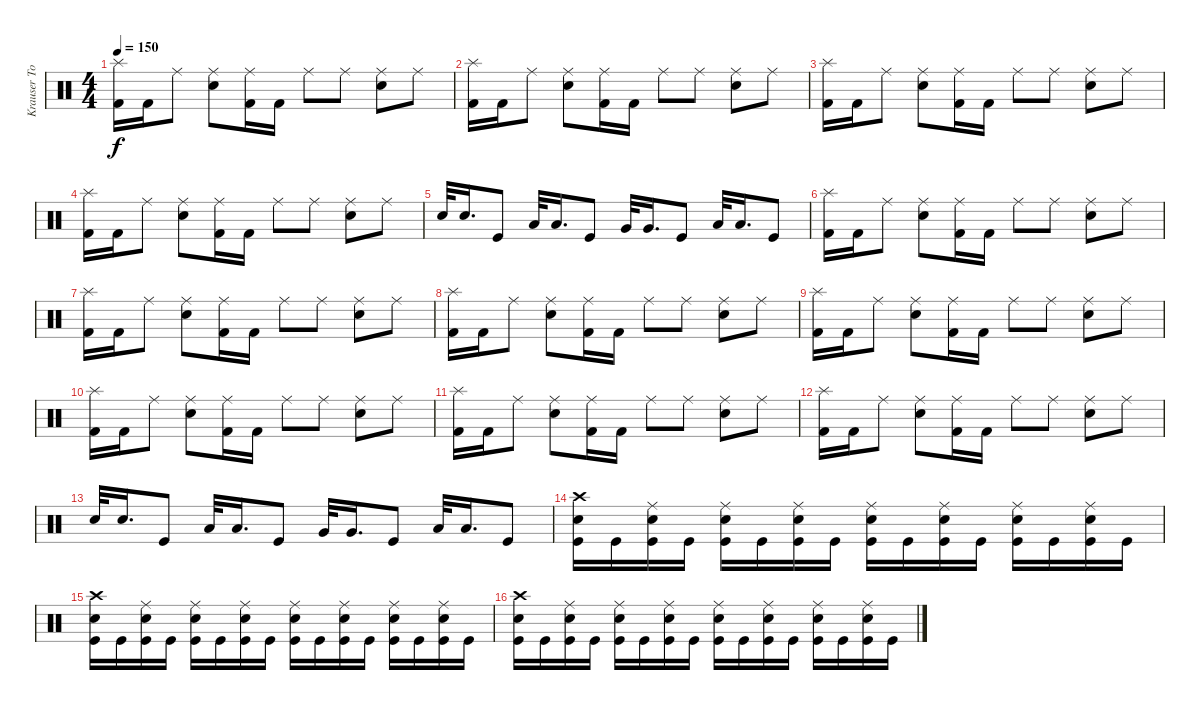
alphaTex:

\track ("Krauser Tolixon" "Krauser To") {instrument percussion}
\staff {score}
\articulation defaults
\ts (4 4)
\tempo 150
\clef neutral
\ks c
("Splash (hit)" "Kick (hit) 2").16{dy f} "Kick (hit) 2".16 "Ride (middle)".8 ("Ride (middle)" "Electric Snare (hit)").8 ("Ride (middle)" "Kick (hit) 2").16 "Kick (hit) 2".16 "Ride (middle)".8 "Ride (middle)".8 ("Ride (middle)" "Electric Snare (hit)").8 "Ride (middle)".8 |
("Splash (hit)" "Kick (hit) 2").16 "Kick (hit) 2".16 "Ride (middle)".8 ("Ride (middle)" "Electric Snare (hit)").8 ("Ride (middle)" "Kick (hit) 2").16 "Kick (hit) 2".16 "Ride (middle)".8 "Ride (middle)".8 ("Ride (middle)" "Electric Snare (hit)").8 "Ride (middle)".8 |
("Splash (hit)" "Kick (hit) 2").16 "Kick (hit) 2".16 "Ride (middle)".8 ("Ride (middle)" "Electric Snare (hit)").8 ("Ride (middle)" "Kick (hit) 2").16 "Kick (hit) 2".16 "Ride (middle)".8 "Ride (middle)".8 ("Ride (middle)" "Electric Snare (hit)").8 "Ride (middle)".8 |
("Splash (hit)" "Kick (hit) 2").16 "Kick (hit) 2".16 "Ride (middle)".8 ("Ride (middle)" "Electric Snare (hit)").8 ("Ride (middle)" "Kick (hit) 2").16 "Kick (hit) 2".16 "Ride (middle)".8 "Ride (middle)".8 ("Ride (middle)" "Electric Snare (hit)").8 "Ride (middle)".8 |
"Electric Snare (hit)".32 "Electric Snare (hit)".16{d} "Kick (hit)".8 "Low Tom (hit)".32 "Low Tom (hit)".16{d} "Kick (hit)".8 "Very Low Tom (hit)".32 "Very Low Tom (hit)".16{d} "Kick (hit)".8 "Low Floor Tom (hit)".32 "Low Floor Tom (hit)".16{d} "Kick (hit)".8 |
("Splash (hit)" "Kick (hit) 2").16 "Kick (hit) 2".16 "Ride (middle)".8 ("Ride (middle)" "Electric Snare (hit)").8 ("Ride (middle)" "Kick (hit) 2").16 "Kick (hit) 2".16 "Ride (middle)".8 "Ride (middle)".8 ("Ride (middle)" "Electric Snare (hit)").8 "Ride (middle)".8 |
("Splash (hit)" "Kick (hit) 2").16 "Kick (hit) 2".16 "Ride (middle)".8 ("Ride (middle)" "Electric Snare (hit)").8 ("Ride (middle)" "Kick (hit) 2").16 "Kick (hit) 2".16 "Ride (middle)".8 "Ride (middle)".8 ("Ride (middle)" "Electric Snare (hit)").8 "Ride (middle)".8 |
("Splash (hit)" "Kick (hit) 2").16 "Kick (hit) 2".16 "Ride (middle)".8 ("Ride (middle)" "Electric Snare (hit)").8 ("Ride (middle)" "Kick (hit) 2").16 "Kick (hit) 2".16 "Ride (middle)".8 "Ride (middle)".8 ("Ride (middle)" "Electric Snare (hit)").8 "Ride (middle)".8 |
("Splash (hit)" "Kick (hit) 2").16 "Kick (hit) 2".16 "Ride (middle)".8 ("Ride (middle)" "Electric Snare (hit)").8 ("Ride (middle)" "Kick (hit) 2").16 "Kick (hit) 2".16 "Ride (middle)".8 "Ride (middle)".8 ("Ride (middle)" "Electric Snare (hit)").8 "Ride (middle)".8 |
("Splash (hit)" "Kick (hit) 2").16 "Kick (hit) 2".16 "Ride (middle)".8 ("Ride (middle)" "Electric Snare (hit)").8 ("Ride (middle)" "Kick (hit) 2").16 "Kick (hit) 2".16 "Ride (middle)".8 "Ride (middle)".8 ("Ride (middle)" "Electric Snare (hit)").8 "Ride (middle)".8 |
("Splash (hit)" "Kick (hit) 2").16 "Kick (hit) 2".16 "Ride (middle)".8 ("Ride (middle)" "Electric Snare (hit)").8 ("Ride (middle)" "Kick (hit) 2").16 "Kick (hit) 2".16 "Ride (middle)".8 "Ride (middle)".8 ("Ride (middle)" "Electric Snare (hit)").8 "Ride (middle)".8 |
("Splash (hit)" "Kick (hit) 2").16 "Kick (hit) 2".16 "Ride (middle)".8 ("Ride (middle)" "Electric Snare (hit)").8 ("Ride (middle)" "Kick (hit) 2").16 "Kick (hit) 2".16 "Ride (middle)".8 "Ride (middle)".8 ("Ride (middle)" "Electric Snare (hit)").8 "Ride (middle)".8 |
"Electric Snare (hit)".32 "Electric Snare (hit)".16{d} "Kick (hit)".8 "Low Tom (hit)".32 "Low Tom (hit)".16{d} "Kick (hit)".8 "Very Low Tom (hit)".32 "Very Low Tom (hit)".16{d} "Kick (hit)".8 "Low Floor Tom (hit)".32 "Low Floor Tom (hit)".16{d} "Kick (hit)".8 |
("Crash high (hit)" "Electric Snare (hit)" "Kick (hit)").16 "Kick (hit)".16 ("Ride (middle)" "Electric Snare (hit)" "Kick (hit)").16 "Kick (hit)".16 ("Ride (middle)" "Electric Snare (hit)" "Kick (hit)").16 "Kick (hit)".16 ("Ride (middle)" "Electric Snare (hit)" "Kick (hit)").16 "Kick (hit)".16 ("Ride (middle)" "Electric Snare (hit)" "Kick (hit)").16 "Kick (hit)".16 ("Ride (middle)" "Electric Snare (hit)" "Kick (hit)").16 "Kick (hit)".16 ("Ride (middle)" "Electric Snare (hit)" "Kick (hit)").16 "Kick (hit)".16 ("Ride (middle)" "Electric Snare (hit)" "Kick (hit)").16 "Kick (hit)".16 |
("Crash high (hit)" "Electric Snare (hit)" "Kick (hit)").16 "Kick (hit)".16 ("Ride (middle)" "Electric Snare (hit)" "Kick (hit)").16 "Kick (hit)".16 ("Ride (middle)" "Electric Snare (hit)" "Kick (hit)").16 "Kick (hit)".16 ("Ride (middle)" "Electric Snare (hit)" "Kick (hit)").16 "Kick (hit)".16 ("Ride (middle)" "Electric Snare (hit)" "Kick (hit)").16 "Kick (hit)".16 ("Ride (middle)" "Electric Snare (hit)" "Kick (hit)").16 "Kick (hit)".16 ("Ride (middle)" "Electric Snare (hit)" "Kick (hit)").16 "Kick (hit)".16 ("Ride (middle)" "Electric Snare (hit)" "Kick (hit)").16 "Kick (hit)".16 |
("Crash high (hit)" "Electric Snare (hit)" "Kick (hit)").16 "Kick (hit)".16 ("Ride (middle)" "Electric Snare (hit)" "Kick (hit)").16 "Kick (hit)".16 ("Ride (middle)" "Electric Snare (hit)" "Kick (hit)").16 "Kick (hit)".16 ("Ride (middle)" "Electric Snare (hit)" "Kick (hit)").16 "Kick (hit)".16 ("Ride (middle)" "Electric Snare (hit)" "Kick (hit)").16 "Kick (hit)".16 ("Ride (middle)" "Electric Snare (hit)" "Kick (hit)").16 "Kick (hit)".16 ("Ride (middle)" "Electric Snare (hit)" "Kick (hit)").16 "Kick (hit)".16 ("Ride (middle)" "Electric Snare (hit)" "Kick (hit)").16 "Kick (hit)".16
